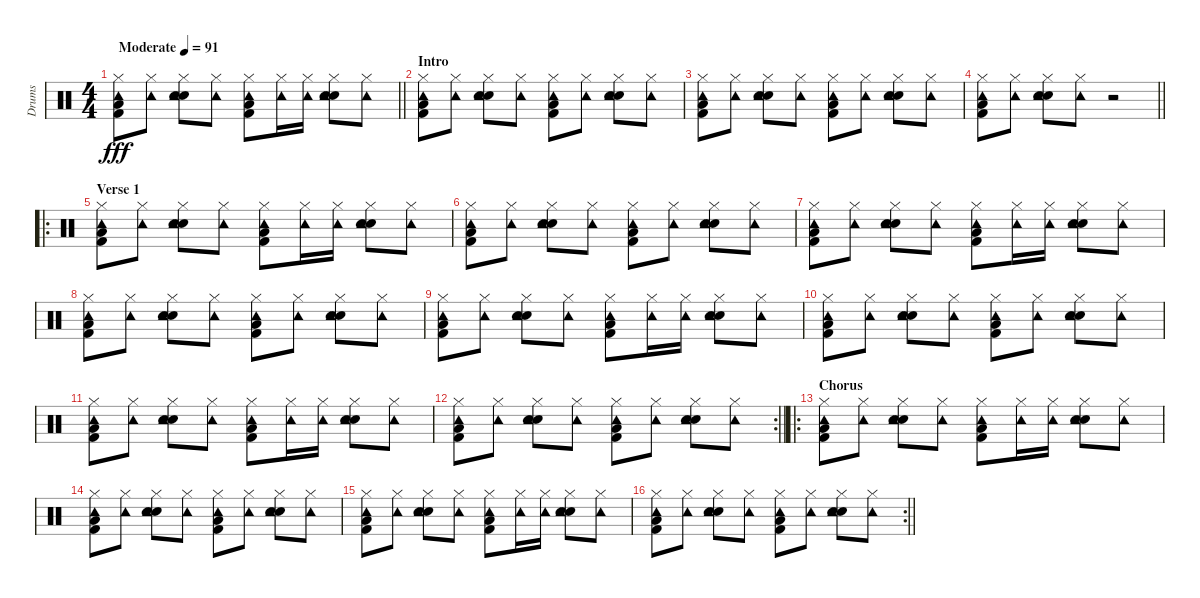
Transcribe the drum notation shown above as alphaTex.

\track ("Drums" "Drums") {instrument percussion}
\staff {score}
\articulation defaults
\ts (4 4)
\tempo (91 "Moderate")
\clef neutral
\barLineRight lightlight
\ks c
("Hi-Hat (closed)" "Low Floor Tom (hit)" "Kick (hit) 2" "Tambourine (hit)").8{dy fff volume 2} ("Hi-Hat (closed)" "Tambourine (hit)").8 ("Hi-Hat (closed)" "Electric Snare (hit)" "Hand Clap (hit)" "Tambourine (hit)").8 ("Hi-Hat (closed)" "Tambourine (hit)").8 ("Hi-Hat (closed)" "Low Floor Tom (hit)" "Kick (hit) 2" "Tambourine (hit)").8 ("Hi-Hat (closed)" "Tambourine (hit)").16 ("Hi-Hat (closed)" "Tambourine (hit)").16 ("Hi-Hat (closed)" "Electric Snare (hit)" "Hand Clap (hit)" "Tambourine (hit)").8 ("Hi-Hat (closed)" "Tambourine (hit)").8 |
\section ("" "Intro")
("Hi-Hat (closed)" "Low Floor Tom (hit)" "Kick (hit) 2" "Tambourine (hit)").8 ("Hi-Hat (closed)" "Tambourine (hit)").8 ("Hi-Hat (closed)" "Electric Snare (hit)" "Hand Clap (hit)" "Tambourine (hit)").8 ("Hi-Hat (closed)" "Tambourine (hit)").8 ("Hi-Hat (closed)" "Low Floor Tom (hit)" "Kick (hit) 2" "Tambourine (hit)").8 ("Hi-Hat (closed)" "Tambourine (hit)").8 ("Hi-Hat (closed)" "Electric Snare (hit)" "Hand Clap (hit)" "Tambourine (hit)").8 ("Hi-Hat (closed)" "Tambourine (hit)").8 |
("Hi-Hat (closed)" "Low Floor Tom (hit)" "Kick (hit) 2" "Tambourine (hit)").8 ("Hi-Hat (closed)" "Tambourine (hit)").8 ("Hi-Hat (closed)" "Electric Snare (hit)" "Hand Clap (hit)" "Tambourine (hit)").8 ("Hi-Hat (closed)" "Tambourine (hit)").8 ("Hi-Hat (closed)" "Low Floor Tom (hit)" "Kick (hit) 2" "Tambourine (hit)").8 ("Hi-Hat (closed)" "Tambourine (hit)").8 ("Hi-Hat (closed)" "Electric Snare (hit)" "Hand Clap (hit)" "Tambourine (hit)").8 ("Hi-Hat (closed)" "Tambourine (hit)").8 |
\barLineRight lightlight
("Hi-Hat (closed)" "Low Floor Tom (hit)" "Kick (hit) 2" "Tambourine (hit)").8 ("Hi-Hat (closed)" "Tambourine (hit)").8 ("Hi-Hat (closed)" "Electric Snare (hit)" "Hand Clap (hit)" "Tambourine (hit)").8 ("Hi-Hat (closed)" "Tambourine (hit)").8 r.2 |
\ro
\section ("" "Verse 1")
("Hi-Hat (closed)" "Low Floor Tom (hit)" "Kick (hit) 2" "Tambourine (hit)").8 ("Hi-Hat (closed)" "Tambourine (hit)").8 ("Hi-Hat (closed)" "Electric Snare (hit)" "Hand Clap (hit)" "Tambourine (hit)").8 ("Hi-Hat (closed)" "Tambourine (hit)").8 ("Hi-Hat (closed)" "Low Floor Tom (hit)" "Kick (hit) 2" "Tambourine (hit)").8 ("Hi-Hat (closed)" "Tambourine (hit)").16 ("Hi-Hat (closed)" "Tambourine (hit)").16 ("Hi-Hat (closed)" "Electric Snare (hit)" "Hand Clap (hit)" "Tambourine (hit)").8 ("Hi-Hat (closed)" "Tambourine (hit)").8 |
("Hi-Hat (closed)" "Low Floor Tom (hit)" "Kick (hit) 2" "Tambourine (hit)").8 ("Hi-Hat (closed)" "Tambourine (hit)").8 ("Hi-Hat (closed)" "Electric Snare (hit)" "Hand Clap (hit)" "Tambourine (hit)").8 ("Hi-Hat (closed)" "Tambourine (hit)").8 ("Hi-Hat (closed)" "Low Floor Tom (hit)" "Kick (hit) 2" "Tambourine (hit)").8 ("Hi-Hat (closed)" "Tambourine (hit)").8 ("Hi-Hat (closed)" "Electric Snare (hit)" "Hand Clap (hit)" "Tambourine (hit)").8 ("Hi-Hat (closed)" "Tambourine (hit)").8 |
("Hi-Hat (closed)" "Low Floor Tom (hit)" "Kick (hit) 2" "Tambourine (hit)").8 ("Hi-Hat (closed)" "Tambourine (hit)").8 ("Hi-Hat (closed)" "Electric Snare (hit)" "Hand Clap (hit)" "Tambourine (hit)").8 ("Hi-Hat (closed)" "Tambourine (hit)").8 ("Hi-Hat (closed)" "Low Floor Tom (hit)" "Kick (hit) 2" "Tambourine (hit)").8 ("Hi-Hat (closed)" "Tambourine (hit)").16 ("Hi-Hat (closed)" "Tambourine (hit)").16 ("Hi-Hat (closed)" "Electric Snare (hit)" "Hand Clap (hit)" "Tambourine (hit)").8 ("Hi-Hat (closed)" "Tambourine (hit)").8 |
("Hi-Hat (closed)" "Low Floor Tom (hit)" "Kick (hit) 2" "Tambourine (hit)").8 ("Hi-Hat (closed)" "Tambourine (hit)").8 ("Hi-Hat (closed)" "Electric Snare (hit)" "Hand Clap (hit)" "Tambourine (hit)").8 ("Hi-Hat (closed)" "Tambourine (hit)").8 ("Hi-Hat (closed)" "Low Floor Tom (hit)" "Kick (hit) 2" "Tambourine (hit)").8 ("Hi-Hat (closed)" "Tambourine (hit)").8 ("Hi-Hat (closed)" "Electric Snare (hit)" "Hand Clap (hit)" "Tambourine (hit)").8 ("Hi-Hat (closed)" "Tambourine (hit)").8 |
("Hi-Hat (closed)" "Low Floor Tom (hit)" "Kick (hit) 2" "Tambourine (hit)").8 ("Hi-Hat (closed)" "Tambourine (hit)").8 ("Hi-Hat (closed)" "Electric Snare (hit)" "Hand Clap (hit)" "Tambourine (hit)").8 ("Hi-Hat (closed)" "Tambourine (hit)").8 ("Hi-Hat (closed)" "Low Floor Tom (hit)" "Kick (hit) 2" "Tambourine (hit)").8 ("Hi-Hat (closed)" "Tambourine (hit)").16 ("Hi-Hat (closed)" "Tambourine (hit)").16 ("Hi-Hat (closed)" "Electric Snare (hit)" "Hand Clap (hit)" "Tambourine (hit)").8 ("Hi-Hat (closed)" "Tambourine (hit)").8 |
("Hi-Hat (closed)" "Low Floor Tom (hit)" "Kick (hit) 2" "Tambourine (hit)").8 ("Hi-Hat (closed)" "Tambourine (hit)").8 ("Hi-Hat (closed)" "Electric Snare (hit)" "Hand Clap (hit)" "Tambourine (hit)").8 ("Hi-Hat (closed)" "Tambourine (hit)").8 ("Hi-Hat (closed)" "Low Floor Tom (hit)" "Kick (hit) 2" "Tambourine (hit)").8 ("Hi-Hat (closed)" "Tambourine (hit)").8 ("Hi-Hat (closed)" "Electric Snare (hit)" "Hand Clap (hit)" "Tambourine (hit)").8 ("Hi-Hat (closed)" "Tambourine (hit)").8 |
("Hi-Hat (closed)" "Low Floor Tom (hit)" "Kick (hit) 2" "Tambourine (hit)").8 ("Hi-Hat (closed)" "Tambourine (hit)").8 ("Hi-Hat (closed)" "Electric Snare (hit)" "Hand Clap (hit)" "Tambourine (hit)").8 ("Hi-Hat (closed)" "Tambourine (hit)").8 ("Hi-Hat (closed)" "Low Floor Tom (hit)" "Kick (hit) 2" "Tambourine (hit)").8 ("Hi-Hat (closed)" "Tambourine (hit)").16 ("Hi-Hat (closed)" "Tambourine (hit)").16 ("Hi-Hat (closed)" "Electric Snare (hit)" "Hand Clap (hit)" "Tambourine (hit)").8 ("Hi-Hat (closed)" "Tambourine (hit)").8 |
\rc 2
\barLineRight lightlight
("Hi-Hat (closed)" "Low Floor Tom (hit)" "Kick (hit) 2" "Tambourine (hit)").8 ("Hi-Hat (closed)" "Tambourine (hit)").8 ("Hi-Hat (closed)" "Electric Snare (hit)" "Hand Clap (hit)" "Tambourine (hit)").8 ("Hi-Hat (closed)" "Tambourine (hit)").8 ("Hi-Hat (closed)" "Low Floor Tom (hit)" "Kick (hit) 2" "Tambourine (hit)").8 ("Hi-Hat (closed)" "Tambourine (hit)").8 ("Hi-Hat (closed)" "Electric Snare (hit)" "Hand Clap (hit)" "Tambourine (hit)").8 ("Hi-Hat (closed)" "Tambourine (hit)").8 |
\ro
\section ("" "Chorus")
("Hi-Hat (closed)" "Low Floor Tom (hit)" "Kick (hit) 2" "Tambourine (hit)").8 ("Hi-Hat (closed)" "Tambourine (hit)").8 ("Hi-Hat (closed)" "Electric Snare (hit)" "Hand Clap (hit)" "Tambourine (hit)").8 ("Hi-Hat (closed)" "Tambourine (hit)").8 ("Hi-Hat (closed)" "Low Floor Tom (hit)" "Kick (hit) 2" "Tambourine (hit)").8 ("Hi-Hat (closed)" "Tambourine (hit)").16 ("Hi-Hat (closed)" "Tambourine (hit)").16 ("Hi-Hat (closed)" "Electric Snare (hit)" "Hand Clap (hit)" "Tambourine (hit)").8 ("Hi-Hat (closed)" "Tambourine (hit)").8 |
("Hi-Hat (closed)" "Low Floor Tom (hit)" "Kick (hit) 2" "Tambourine (hit)").8 ("Hi-Hat (closed)" "Tambourine (hit)").8 ("Hi-Hat (closed)" "Electric Snare (hit)" "Hand Clap (hit)" "Tambourine (hit)").8 ("Hi-Hat (closed)" "Tambourine (hit)").8 ("Hi-Hat (closed)" "Low Floor Tom (hit)" "Kick (hit) 2" "Tambourine (hit)").8 ("Hi-Hat (closed)" "Tambourine (hit)").8 ("Hi-Hat (closed)" "Electric Snare (hit)" "Hand Clap (hit)" "Tambourine (hit)").8 ("Hi-Hat (closed)" "Tambourine (hit)").8 |
("Hi-Hat (closed)" "Low Floor Tom (hit)" "Kick (hit) 2" "Tambourine (hit)").8 ("Hi-Hat (closed)" "Tambourine (hit)").8 ("Hi-Hat (closed)" "Electric Snare (hit)" "Hand Clap (hit)" "Tambourine (hit)").8 ("Hi-Hat (closed)" "Tambourine (hit)").8 ("Hi-Hat (closed)" "Low Floor Tom (hit)" "Kick (hit) 2" "Tambourine (hit)").8 ("Hi-Hat (closed)" "Tambourine (hit)").16 ("Hi-Hat (closed)" "Tambourine (hit)").16 ("Hi-Hat (closed)" "Electric Snare (hit)" "Hand Clap (hit)" "Tambourine (hit)").8 ("Hi-Hat (closed)" "Tambourine (hit)").8 |
\rc 2
\barLineRight lightlight
("Hi-Hat (closed)" "Low Floor Tom (hit)" "Kick (hit) 2" "Tambourine (hit)").8 ("Hi-Hat (closed)" "Tambourine (hit)").8 ("Hi-Hat (closed)" "Electric Snare (hit)" "Hand Clap (hit)" "Tambourine (hit)").8 ("Hi-Hat (closed)" "Tambourine (hit)").8 ("Hi-Hat (closed)" "Low Floor Tom (hit)" "Kick (hit) 2" "Tambourine (hit)").8 ("Hi-Hat (closed)" "Tambourine (hit)").8 ("Hi-Hat (closed)" "Electric Snare (hit)" "Hand Clap (hit)" "Tambourine (hit)").8 ("Hi-Hat (closed)" "Tambourine (hit)").8
